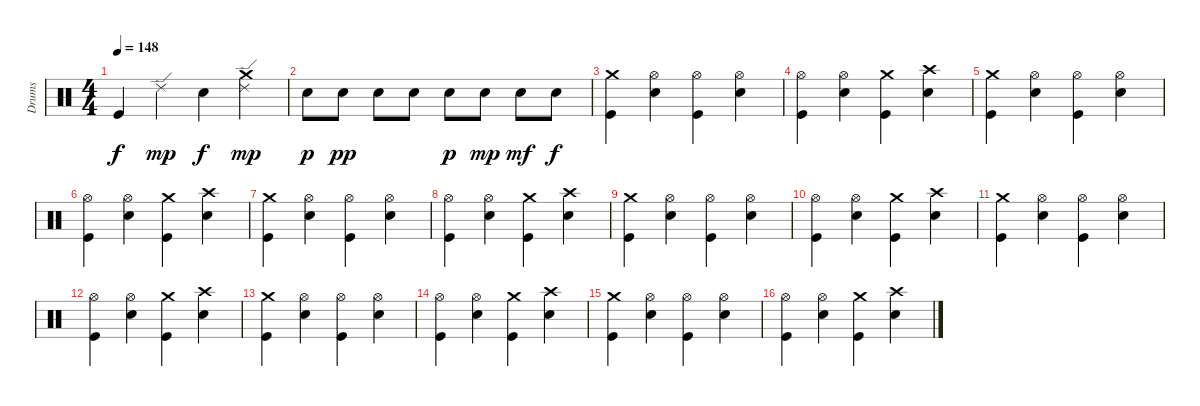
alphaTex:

\track ("Drums" "Drums") {instrument percussion}
\staff {score}
\articulation defaults
\ts (4 4)
\tempo 148
\clef neutral
\ks c "Kick (hit)".4{dy f} "Ride (edge) 2".4{dy mp} "Snare (hit) 2".4{dy f}
("Ride (edge) 2" "Crash medium (hit)").4{dy mp} |
"Snare (hit) 2".8{dy p} "Snare (hit) 2".8{dy pp} "Snare (hit) 2".8 "Snare (hit) 2".8 "Snare (hit) 2".8{dy p} "Snare (hit) 2".8{dy mp} "Snare (hit) 2".8{dy mf} "Snare (hit) 2".8{dy f} |
("Kick (hit)" "Crash medium (hit)").4 ("Snare (hit) 2" "Hi-Hat (open)").4 ("Kick (hit)" "Hi-Hat (open)").4 ("Snare (hit) 2" "Hi-Hat (open)").4 |
("Kick (hit)" "Hi-Hat (open)").4 ("Snare (hit) 2" "Hi-Hat (open)").4 ("Kick (hit)" "Crash medium (hit)").4 ("Snare (hit) 2" "Crash high (hit)").4 |
("Kick (hit)" "Crash medium (hit)").4 ("Snare (hit) 2" "Hi-Hat (open)").4 ("Kick (hit)" "Hi-Hat (open)").4 ("Snare (hit) 2" "Hi-Hat (open)").4 |
("Kick (hit)" "Hi-Hat (open)").4 ("Snare (hit) 2" "Hi-Hat (open)").4 ("Kick (hit)" "Crash medium (hit)").4 ("Snare (hit) 2" "Crash high (hit)").4 |
("Kick (hit)" "Crash medium (hit)").4 ("Snare (hit) 2" "Hi-Hat (open)").4 ("Kick (hit)" "Hi-Hat (open)").4 ("Snare (hit) 2" "Hi-Hat (open)").4 |
("Kick (hit)" "Hi-Hat (open)").4 ("Snare (hit) 2" "Hi-Hat (open)").4 ("Kick (hit)" "Crash medium (hit)").4 ("Snare (hit) 2" "Crash high (hit)").4 |
("Kick (hit)" "Crash medium (hit)").4 ("Snare (hit) 2" "Hi-Hat (open)").4 ("Kick (hit)" "Hi-Hat (open)").4 ("Snare (hit) 2" "Hi-Hat (open)").4 |
("Kick (hit)" "Hi-Hat (open)").4 ("Snare (hit) 2" "Hi-Hat (open)").4 ("Kick (hit)" "Crash medium (hit)").4 ("Snare (hit) 2" "Crash high (hit)").4 |
("Kick (hit)" "Crash medium (hit)").4 ("Snare (hit) 2" "Hi-Hat (open)").4 ("Kick (hit)" "Hi-Hat (open)").4 ("Snare (hit) 2" "Hi-Hat (open)").4 |
("Kick (hit)" "Hi-Hat (open)").4 ("Snare (hit) 2" "Hi-Hat (open)").4 ("Kick (hit)" "Crash medium (hit)").4 ("Snare (hit) 2" "Crash high (hit)").4 |
("Kick (hit)" "Crash medium (hit)").4 ("Snare (hit) 2" "Hi-Hat (open)").4 ("Kick (hit)" "Hi-Hat (open)").4 ("Snare (hit) 2" "Hi-Hat (open)").4 |
("Kick (hit)" "Hi-Hat (open)").4 ("Snare (hit) 2" "Hi-Hat (open)").4 ("Kick (hit)" "Crash medium (hit)").4 ("Snare (hit) 2" "Crash high (hit)").4 |
("Kick (hit)" "Crash medium (hit)").4 ("Snare (hit) 2" "Hi-Hat (open)").4 ("Kick (hit)" "Hi-Hat (open)").4 ("Snare (hit) 2" "Hi-Hat (open)").4 |
("Kick (hit)" "Hi-Hat (open)").4 ("Snare (hit) 2" "Hi-Hat (open)").4 ("Kick (hit)" "Crash medium (hit)").4 ("Snare (hit) 2" "Crash high (hit)").4
